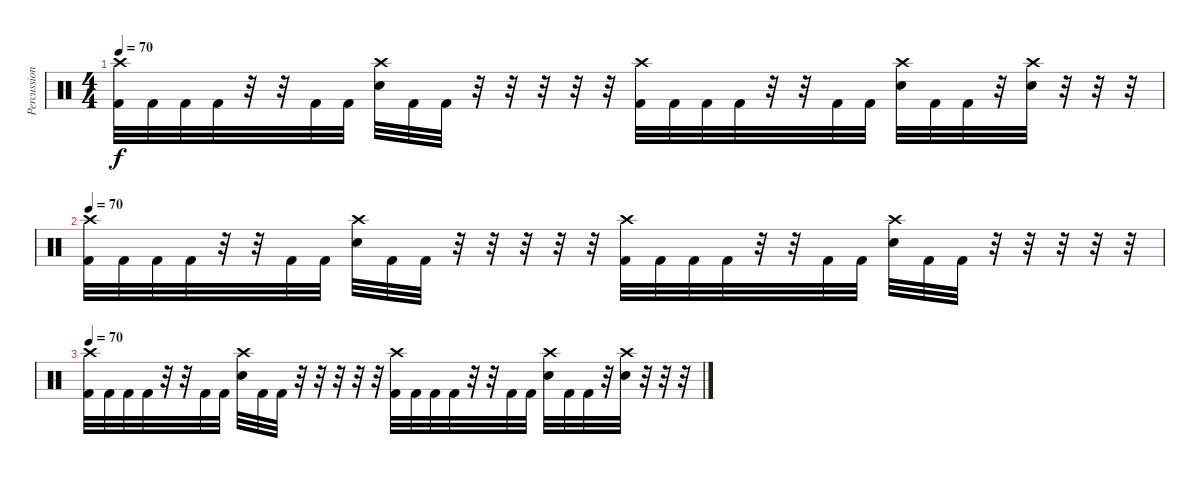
\track ("Percussion" "Percussion") {instrument percussion}
\staff {score}
\articulation defaults
\ts (4 4)
\tempo 70
\clef neutral
\ks c
("Crash high (hit)" "Kick (hit) 2").32{dy f} "Kick (hit) 2".32 "Kick (hit) 2".32 "Kick (hit) 2".32 r.32 r.32 "Kick (hit) 2".32 "Kick (hit) 2".32 ("Crash high (hit)" "Electric Snare (hit)").32 "Kick (hit) 2".32 "Kick (hit) 2".32 r.32 r.32 r.32 r.32 r.32 ("Crash high (hit)" "Kick (hit) 2").32 "Kick (hit) 2".32 "Kick (hit) 2".32 "Kick (hit) 2".32 r.32 r.32 "Kick (hit) 2".32 "Kick (hit) 2".32 ("Crash high (hit)" "Electric Snare (hit)").32 "Kick (hit) 2".32 "Kick (hit) 2".32 r.32 ("Crash high (hit)" "Electric Snare (hit)").32 r.32 r.32 r.32 |
\tempo 70
("Crash high (hit)" "Kick (hit) 2").32 "Kick (hit) 2".32 "Kick (hit) 2".32 "Kick (hit) 2".32 r.32 r.32 "Kick (hit) 2".32 "Kick (hit) 2".32 ("Crash high (hit)" "Electric Snare (hit)").32 "Kick (hit) 2".32 "Kick (hit) 2".32 r.32 r.32 r.32 r.32 r.32 ("Crash high (hit)" "Kick (hit) 2").32 "Kick (hit) 2".32 "Kick (hit) 2".32 "Kick (hit) 2".32 r.32 r.32 "Kick (hit) 2".32 "Kick (hit) 2".32 ("Crash high (hit)" "Electric Snare (hit)").32 "Kick (hit) 2".32 "Kick (hit) 2".32 r.32 r.32 r.32 r.32 r.32 |
\tempo 70
("Crash high (hit)" "Kick (hit) 2").32 "Kick (hit) 2".32 "Kick (hit) 2".32 "Kick (hit) 2".32 r.32 r.32 "Kick (hit) 2".32 "Kick (hit) 2".32 ("Crash high (hit)" "Electric Snare (hit)").32 "Kick (hit) 2".32 "Kick (hit) 2".32 r.32 r.32 r.32 r.32 r.32 ("Crash high (hit)" "Kick (hit) 2").32 "Kick (hit) 2".32 "Kick (hit) 2".32 "Kick (hit) 2".32 r.32 r.32 "Kick (hit) 2".32 "Kick (hit) 2".32 ("Crash high (hit)" "Electric Snare (hit)").32 "Kick (hit) 2".32 "Kick (hit) 2".32 r.32 ("Crash high (hit)" "Electric Snare (hit)").32 r.32 r.32 r.32
